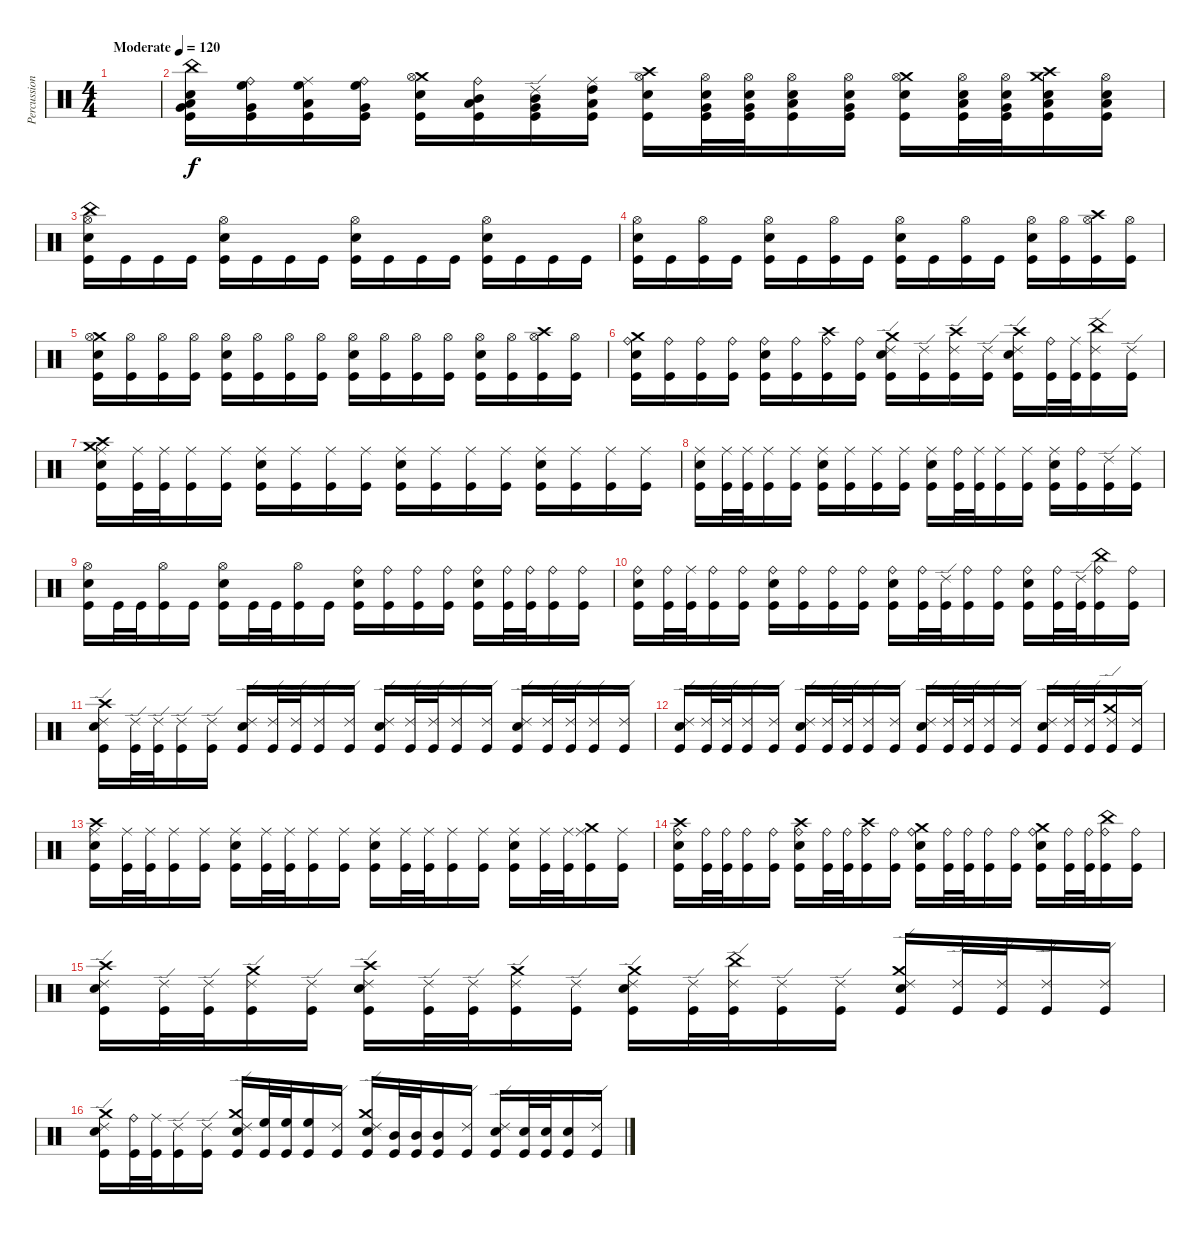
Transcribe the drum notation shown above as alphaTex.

\track ("Percussion" "Percussion") {instrument percussion}
\staff {score}
\articulation defaults
\ts (4 4)
\tempo (120 "Moderate")
\clef neutral
\ks c
|
("China (hit)" "Very Low Tom (hit)" "Low Floor Tom (hit)" "Snare (hit) 2" "Kick (hit)").16 ("Ride (bell)" "Very Low Tom (hit)" "High Floor Tom (hit)" "Kick (hit)").16 ("Ride (middle)" "Low Floor Tom (hit)" "High Floor Tom (hit)" "Kick (hit)").16 ("Ride (bell)" "Very Low Tom (hit)" "High Floor Tom (hit)" "Kick (hit)").16 ("Crash medium (hit)" "Hi-Hat (open)" "Snare (hit) 2" "Kick (hit)").16 ("Ride (bell)" "Low Floor Tom (hit)" "Mid Tom (hit)" "Kick (hit)").16 ("Ride (edge) 2" "Very Low Tom (hit)" "Mid Tom (hit)" "Kick (hit)").16 ("Ride (middle)" "Low Floor Tom (hit)" "High Tom (hit)" "Kick (hit)").16 ("Crash high (hit)" "Hi-Hat (open)" "Snare (hit) 2" "Kick (hit)").16 ("Hi-Hat (open)" "Very Low Tom (hit)" "Snare (hit) 2" "Kick (hit)").32 ("Hi-Hat (open)" "Very Low Tom (hit)" "Snare (hit) 2" "Kick (hit)").32 ("Hi-Hat (open)" "Low Floor Tom (hit)" "Snare (hit) 2" "Kick (hit)").16 ("Hi-Hat (open)" "Very Low Tom (hit)" "Snare (hit) 2" "Kick (hit)").16 ("Crash medium (hit)" "Hi-Hat (open)" "Snare (hit) 2" "Kick (hit)").16 ("Hi-Hat (open)" "Low Floor Tom (hit)" "Snare (hit) 2" "Kick (hit)").32 ("Hi-Hat (open)" "Very Low Tom (hit)" "Snare (hit) 2" "Kick (hit)").32 ("Crash medium (hit)" "Crash high (hit)" "Low Floor Tom (hit)" "Snare (hit) 2" "Kick (hit)").16 ("Hi-Hat (open)" "Low Floor Tom (hit)" "Snare (hit) 2" "Kick (hit)").16 |
("China (hit)" "Hi-Hat (open)" "Snare (hit) 2" "Kick (hit)").16 "Kick (hit)".16 "Kick (hit)".16 "Kick (hit)".16 ("Hi-Hat (open)" "Snare (hit) 2" "Kick (hit)").16 "Kick (hit)".16 "Kick (hit)".16 "Kick (hit)".16 ("Hi-Hat (open)" "Snare (hit) 2" "Kick (hit)").16 "Kick (hit)".16 "Kick (hit)".16 "Kick (hit)".16 ("Hi-Hat (open)" "Snare (hit) 2" "Kick (hit)").16 "Kick (hit)".16 "Kick (hit)".16 "Kick (hit)".16 |
("Hi-Hat (open)" "Snare (hit) 2" "Kick (hit)").16 "Kick (hit)".16 ("Hi-Hat (open)" "Kick (hit)").16 "Kick (hit)".16 ("Hi-Hat (open)" "Snare (hit) 2" "Kick (hit)").16 "Kick (hit)".16 ("Hi-Hat (open)" "Kick (hit)").16 "Kick (hit)".16 ("Hi-Hat (open)" "Snare (hit) 2" "Kick (hit)").16 "Kick (hit)".16 ("Hi-Hat (open)" "Kick (hit)").16 "Kick (hit)".16 ("Hi-Hat (open)" "Snare (hit) 2" "Kick (hit)").16 ("Hi-Hat (open)" "Kick (hit)").16 ("Crash high (hit)" "Hi-Hat (open)" "Kick (hit)").16 ("Hi-Hat (open)" "Kick (hit)").16 |
("Crash medium (hit)" "Hi-Hat (open)" "Snare (hit) 2" "Kick (hit)").16 ("Hi-Hat (open)" "Kick (hit)").16 ("Hi-Hat (open)" "Kick (hit)").16 ("Hi-Hat (open)" "Kick (hit)").16 ("Hi-Hat (open)" "Snare (hit) 2" "Kick (hit)").16 ("Hi-Hat (open)" "Kick (hit)").16 ("Hi-Hat (open)" "Kick (hit)").16 ("Hi-Hat (open)" "Kick (hit)").16 ("Hi-Hat (open)" "Snare (hit) 2" "Kick (hit)").16 ("Hi-Hat (open)" "Kick (hit)").16 ("Hi-Hat (open)" "Kick (hit)").16 ("Hi-Hat (open)" "Kick (hit)").16 ("Hi-Hat (open)" "Snare (hit) 2" "Kick (hit)").16 ("Hi-Hat (open)" "Kick (hit)").16 ("Crash high (hit)" "Hi-Hat (open)" "Kick (hit)").16 ("Hi-Hat (open)" "Kick (hit)").16 |
("Crash medium (hit)" "Ride (bell)" "Snare (hit) 2" "Kick (hit)").16 ("Ride (bell)" "Kick (hit)").16 ("Ride (bell)" "Kick (hit)").16 ("Ride (bell)" "Kick (hit)").16 ("Ride (bell)" "Snare (hit) 2" "Kick (hit)").16 ("Ride (bell)" "Kick (hit)").16 ("Crash high (hit)" "Ride (bell)" "Kick (hit)").16 ("Ride (bell)" "Kick (hit)").16 ("Crash medium (hit)" "Ride (edge) 2" "Snare (hit) 2" "Kick (hit)").16 ("Ride (edge) 2" "Kick (hit)").16 ("Crash high (hit)" "Ride (edge) 2" "Kick (hit)").16 ("Ride (edge) 2" "Kick (hit)").16 ("Crash high (hit)" "Ride (edge) 2" "Snare (hit) 2" "Kick (hit)").16 ("Ride (bell)" "Kick (hit)").32 ("Ride (middle)" "Kick (hit)").32 ("China (hit)" "Ride (edge) 2" "Kick (hit)").16 ("Ride (edge) 2" "Kick (hit)").16 |
("Crash medium (hit)" "Crash high (hit)" "Ride (middle)" "Snare (hit) 2" "Kick (hit)").16 ("Ride (middle)" "Kick (hit)").32 ("Ride (middle)" "Kick (hit)").32 ("Ride (middle)" "Kick (hit)").16 ("Ride (middle)" "Kick (hit)").16 ("Ride (middle)" "Snare (hit) 2" "Kick (hit)").16 ("Ride (middle)" "Kick (hit)").16 ("Ride (middle)" "Kick (hit)").16 ("Ride (middle)" "Kick (hit)").16 ("Ride (middle)" "Snare (hit) 2" "Kick (hit)").16 ("Ride (middle)" "Kick (hit)").16 ("Ride (middle)" "Kick (hit)").16 ("Ride (middle)" "Kick (hit)").16 ("Ride (middle)" "Snare (hit) 2" "Kick (hit)").16 ("Ride (middle)" "Kick (hit)").16 ("Ride (middle)" "Kick (hit)").16 ("Ride (middle)" "Kick (hit)").16 |
("Ride (middle)" "Snare (hit) 2" "Kick (hit)").16 ("Ride (middle)" "Kick (hit)").32 ("Ride (middle)" "Kick (hit)").32 ("Ride (middle)" "Kick (hit)").16 ("Ride (middle)" "Kick (hit)").16 ("Ride (middle)" "Snare (hit) 2" "Kick (hit)").16 ("Ride (middle)" "Kick (hit)").16 ("Ride (middle)" "Kick (hit)").16 ("Ride (middle)" "Kick (hit)").16 ("Ride (middle)" "Snare (hit) 2" "Kick (hit)").16 ("Ride (bell)" "Kick (hit)").32 ("Ride (middle)" "Kick (hit)").32 ("Ride (middle)" "Kick (hit)").16 ("Ride (middle)" "Kick (hit)").16 ("Ride (middle)" "Snare (hit) 2" "Kick (hit)").16 ("Ride (bell)" "Kick (hit)").16 ("Ride (edge) 2" "Kick (hit)").16 ("Ride (middle)" "Kick (hit)").16 |
("Hi-Hat (open)" "Snare (hit) 2" "Kick (hit)").16 "Kick (hit)".32 "Kick (hit)".32 ("Hi-Hat (open)" "Kick (hit)").16 "Kick (hit)".16 ("Hi-Hat (open)" "Snare (hit) 2" "Kick (hit)").16 "Kick (hit)".32 "Kick (hit)".32 ("Hi-Hat (open)" "Kick (hit)").16 "Kick (hit)".16 ("Ride (bell)" "Snare (hit) 2" "Kick (hit)").16 ("Ride (bell)" "Kick (hit)").16 ("Ride (bell)" "Kick (hit)").16 ("Ride (bell)" "Kick (hit)").16 ("Ride (bell)" "Snare (hit) 2" "Kick (hit)").16 ("Ride (bell)" "Kick (hit)").32 ("Ride (bell)" "Kick (hit)").32 ("Ride (bell)" "Kick (hit)").16 ("Ride (bell)" "Kick (hit)").16 |
("Ride (bell)" "Snare (hit) 2" "Kick (hit)").16 ("Ride (bell)" "Kick (hit)").32 ("Ride (middle)" "Kick (hit)").32 ("Ride (bell)" "Kick (hit)").16 ("Ride (bell)" "Kick (hit)").16 ("Ride (bell)" "Snare (hit) 2" "Kick (hit)").16 ("Ride (bell)" "Kick (hit)").16 ("Ride (bell)" "Kick (hit)").16 ("Ride (bell)" "Kick (hit)").16 ("Ride (bell)" "Snare (hit) 2" "Kick (hit)").16 ("Ride (bell)" "Kick (hit)").32 ("Ride (edge) 2" "Kick (hit)").32 ("Ride (bell)" "Kick (hit)").16 ("Ride (bell)" "Kick (hit)").16 ("Ride (bell)" "Snare (hit) 2" "Kick (hit)").16 ("Ride (bell)" "Kick (hit)").32 ("Ride (edge) 2" "Kick (hit)").32 ("China (hit)" "Ride (bell)" "Kick (hit)").16 ("Ride (bell)" "Kick (hit)").16 |
("Crash high (hit)" "Ride (edge) 2" "Snare (hit) 2" "Kick (hit)").16 ("Ride (edge) 2" "Kick (hit)").32 ("Ride (edge) 2" "Kick (hit)").32 ("Ride (edge) 2" "Kick (hit)").16 ("Ride (edge) 2" "Kick (hit)").16 ("Ride (edge) 2" "Snare (hit) 2" "Kick (hit)").16 ("Ride (edge) 2" "Kick (hit)").32 ("Ride (edge) 2" "Kick (hit)").32 ("Ride (edge) 2" "Kick (hit)").16 ("Ride (edge) 2" "Kick (hit)").16 ("Ride (edge) 2" "Snare (hit) 2" "Kick (hit)").16 ("Ride (edge) 2" "Kick (hit)").32 ("Ride (edge) 2" "Kick (hit)").32 ("Ride (edge) 2" "Kick (hit)").16 ("Ride (edge) 2" "Kick (hit)").16 ("Ride (edge) 2" "Snare (hit) 2" "Kick (hit)").16 ("Ride (edge) 2" "Kick (hit)").32 ("Ride (edge) 2" "Kick (hit)").32 ("Ride (edge) 2" "Kick (hit)").16 ("Ride (edge) 2" "Kick (hit)").16 |
("Ride (edge) 2" "Snare (hit) 2" "Kick (hit)").16 ("Ride (edge) 2" "Kick (hit)").32 ("Ride (edge) 2" "Kick (hit)").32 ("Ride (edge) 2" "Kick (hit)").16 ("Ride (edge) 2" "Kick (hit)").16 ("Ride (edge) 2" "Snare (hit) 2" "Kick (hit)").16 ("Ride (edge) 2" "Kick (hit)").32 ("Ride (edge) 2" "Kick (hit)").32 ("Ride (edge) 2" "Kick (hit)").16 ("Ride (edge) 2" "Kick (hit)").16 ("Ride (edge) 2" "Snare (hit) 2" "Kick (hit)").16 ("Ride (edge) 2" "Kick (hit)").32 ("Ride (edge) 2" "Kick (hit)").32 ("Ride (edge) 2" "Kick (hit)").16 ("Ride (edge) 2" "Kick (hit)").16 ("Ride (edge) 2" "Snare (hit) 2" "Kick (hit)").16 ("Ride (edge) 2" "Kick (hit)").32 ("Ride (edge) 2" "Kick (hit)").32 ("Crash medium (hit)" "Ride (edge) 2" "Kick (hit)").16 ("Ride (edge) 2" "Kick (hit)").16 |
("Crash high (hit)" "Ride (middle)" "Snare (hit) 2" "Kick (hit)").16 ("Ride (middle)" "Kick (hit)").32 ("Ride (middle)" "Kick (hit)").32 ("Ride (middle)" "Kick (hit)").16 ("Ride (middle)" "Kick (hit)").16 ("Ride (middle)" "Snare (hit) 2" "Kick (hit)").16 ("Ride (middle)" "Kick (hit)").32 ("Ride (middle)" "Kick (hit)").32 ("Ride (middle)" "Kick (hit)").16 ("Ride (middle)" "Kick (hit)").16 ("Ride (middle)" "Snare (hit) 2" "Kick (hit)").16 ("Ride (middle)" "Kick (hit)").32 ("Ride (middle)" "Kick (hit)").32 ("Ride (middle)" "Kick (hit)").16 ("Ride (middle)" "Kick (hit)").16 ("Ride (middle)" "Snare (hit) 2" "Kick (hit)").16 ("Ride (middle)" "Kick (hit)").32 ("Ride (middle)" "Kick (hit)").32 ("Crash medium (hit)" "Ride (middle)" "Kick (hit)").16 ("Ride (middle)" "Kick (hit)").16 |
("Crash high (hit)" "Ride (bell)" "Snare (hit) 2" "Kick (hit)").16 ("Ride (bell)" "Kick (hit)").32 ("Ride (bell)" "Kick (hit)").32 ("Ride (bell)" "Kick (hit)").16 ("Ride (bell)" "Kick (hit)").16 ("Crash high (hit)" "Ride (bell)" "Snare (hit) 2" "Kick (hit)").16 ("Ride (bell)" "Kick (hit)").32 ("Ride (bell)" "Kick (hit)").32 ("Crash high (hit)" "Ride (bell)" "Kick (hit)").16 ("Ride (bell)" "Kick (hit)").16 ("Crash medium (hit)" "Ride (bell)" "Snare (hit) 2" "Kick (hit)").16 ("Ride (bell)" "Kick (hit)").32 ("Ride (bell)" "Kick (hit)").32 ("Ride (bell)" "Kick (hit)").16 ("Ride (bell)" "Kick (hit)").16 ("Crash medium (hit)" "Ride (bell)" "Snare (hit) 2" "Kick (hit)").16 ("Ride (bell)" "Kick (hit)").32 ("Ride (bell)" "Kick (hit)").32 ("China (hit)" "Ride (bell)" "Kick (hit)").16 ("Ride (bell)" "Kick (hit)").16 |
("Crash high (hit)" "Ride (edge) 2" "Snare (hit) 2" "Kick (hit)").16 ("Ride (edge) 2" "Kick (hit)").32 ("Ride (edge) 2" "Kick (hit)").32 ("Crash medium (hit)" "Ride (edge) 2" "Kick (hit)").16 ("Ride (edge) 2" "Kick (hit)").16 ("Crash high (hit)" "Ride (edge) 2" "Snare (hit) 2" "Kick (hit)").16 ("Ride (edge) 2" "Kick (hit)").32 ("Ride (edge) 2" "Kick (hit)").32 ("Crash medium (hit)" "Ride (edge) 2" "Kick (hit)").16 ("Ride (edge) 2" "Kick (hit)").16 ("Crash medium (hit)" "Ride (edge) 2" "Snare (hit) 2" "Kick (hit)").16 ("Ride (edge) 2" "Kick (hit)").32 ("China (hit)" "Ride (edge) 2" "Kick (hit)").32 ("Ride (edge) 2" "Kick (hit)").16 ("Ride (edge) 2" "Kick (hit)").16 ("Crash medium (hit)" "Ride (edge) 2" "Snare (hit) 2" "Kick (hit)").16 ("Ride (edge) 2" "Kick (hit)").32 ("Ride (edge) 2" "Kick (hit)").32 ("Ride (edge) 2" "Kick (hit)").16 ("Ride (edge) 2" "Kick (hit)").16 |
("Crash medium (hit)" "Ride (edge) 2" "Snare (hit) 2" "Kick (hit)").16 ("Ride (bell)" "Kick (hit)").32 ("Ride (middle)" "Kick (hit)").32 ("Ride (edge) 2" "Kick (hit)").16 ("Ride (edge) 2" "Kick (hit)").16 ("Crash medium (hit)" "Ride (edge) 2" "Snare (hit) 2" "Kick (hit)").16 ("High Floor Tom (hit)" "Kick (hit)").32 ("High Floor Tom (hit)" "Kick (hit)").32 ("High Floor Tom (hit)" "Kick (hit)").16 ("Ride (edge) 2" "Kick (hit)").16 ("Crash medium (hit)" "Ride (edge) 2" "Snare (hit) 2" "Kick (hit)").16 ("Mid Tom (hit)" "Kick (hit)").32 ("Mid Tom (hit)" "Kick (hit)").32 ("Mid Tom (hit)" "Kick (hit)").16 ("Ride (edge) 2" "Kick (hit)").16 ("Ride (edge) 2" "Snare (hit) 2" "Kick (hit)").16 ("Snare (hit) 2" "Kick (hit)").32 ("Snare (hit) 2" "Kick (hit)").32 ("Snare (hit) 2" "Kick (hit)").16 ("Ride (edge) 2" "Kick (hit)").16
